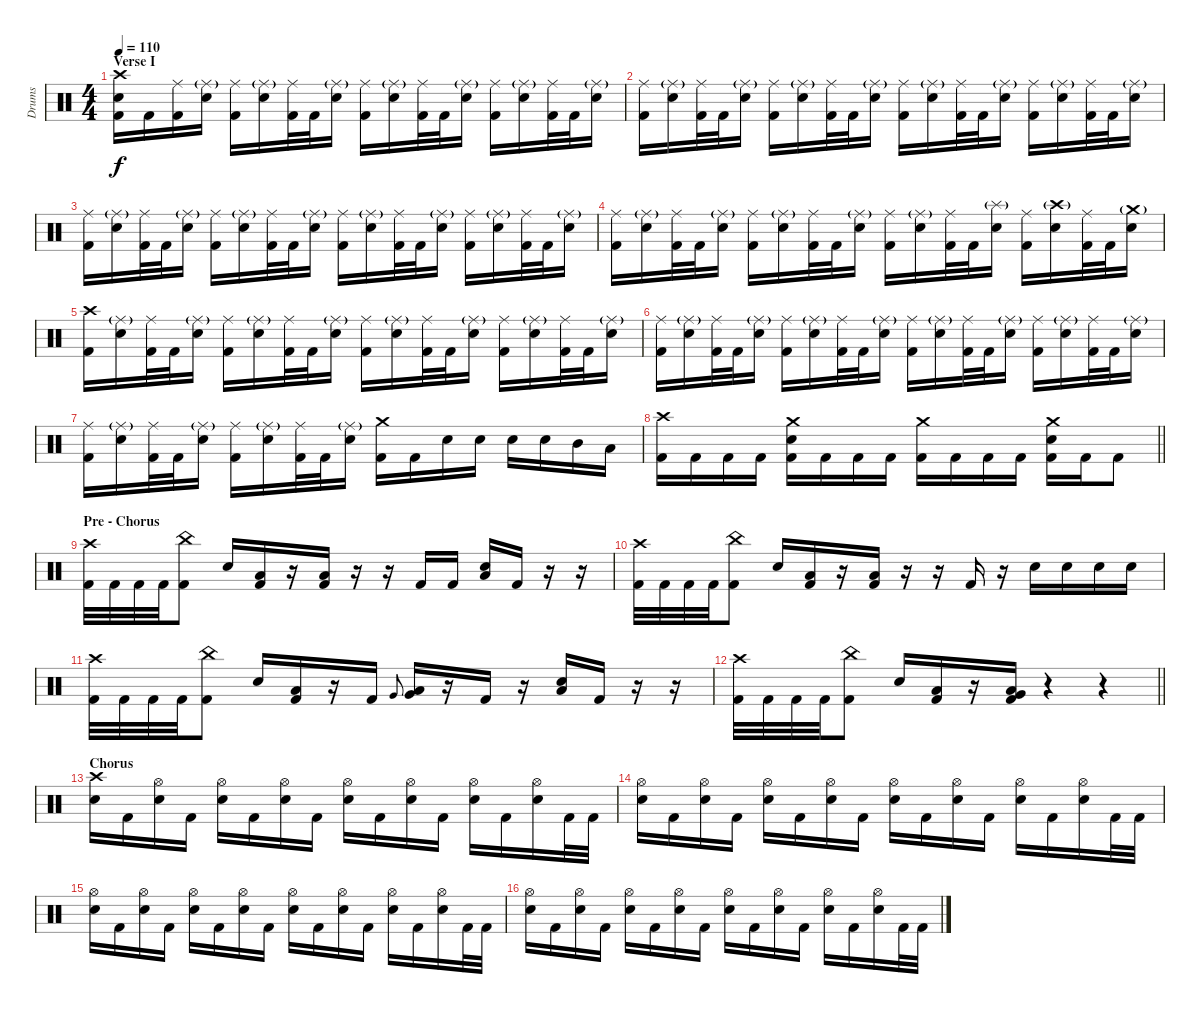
\track ("Drums" "Drums") {instrument percussion}
\staff {score}
\articulation defaults
\ts (4 4)
\section ("" "Verse I")
\tempo 110
\clef neutral
\ks c
("Crash high (hit)" "Electric Snare (hit)" "Kick (hit) 2").16{dy f} "Kick (hit) 2".16 ("Ride (middle)" "Kick (hit) 2").16 ("Ride (middle)"{g} "Electric Snare (hit)").16 ("Ride (middle)" "Kick (hit) 2").16 ("Ride (middle)"{g} "Electric Snare (hit)").16 ("Ride (middle)" "Kick (hit) 2").32 "Kick (hit) 2".32 ("Ride (middle)"{g} "Electric Snare (hit)").16 ("Ride (middle)" "Kick (hit) 2").16 ("Ride (middle)"{g} "Electric Snare (hit)").16 ("Ride (middle)" "Kick (hit) 2").32 "Kick (hit) 2".32 ("Ride (middle)"{g} "Electric Snare (hit)").16 ("Ride (middle)" "Kick (hit) 2").16 ("Ride (middle)"{g} "Electric Snare (hit)").16 ("Ride (middle)" "Kick (hit) 2").32 "Kick (hit) 2".32 ("Ride (middle)"{g} "Electric Snare (hit)").16 |
("Ride (middle)" "Kick (hit) 2").16 ("Ride (middle)"{g} "Electric Snare (hit)").16 ("Ride (middle)" "Kick (hit) 2").32 "Kick (hit) 2".32 ("Ride (middle)"{g} "Electric Snare (hit)").16 ("Ride (middle)" "Kick (hit) 2").16 ("Ride (middle)"{g} "Electric Snare (hit)").16 ("Ride (middle)" "Kick (hit) 2").32 "Kick (hit) 2".32 ("Ride (middle)"{g} "Electric Snare (hit)").16 ("Ride (middle)" "Kick (hit) 2").16 ("Ride (middle)"{g} "Electric Snare (hit)").16 ("Ride (middle)" "Kick (hit) 2").32 "Kick (hit) 2".32 ("Ride (middle)"{g} "Electric Snare (hit)").16 ("Ride (middle)" "Kick (hit) 2").16 ("Ride (middle)"{g} "Electric Snare (hit)").16 ("Ride (middle)" "Kick (hit) 2").32 "Kick (hit) 2".32 ("Ride (middle)"{g} "Electric Snare (hit)").16 |
("Ride (middle)" "Kick (hit) 2").16 ("Ride (middle)"{g} "Electric Snare (hit)").16 ("Ride (middle)" "Kick (hit) 2").32 "Kick (hit) 2".32 ("Ride (middle)"{g} "Electric Snare (hit)").16 ("Ride (middle)" "Kick (hit) 2").16 ("Ride (middle)"{g} "Electric Snare (hit)").16 ("Ride (middle)" "Kick (hit) 2").32 "Kick (hit) 2".32 ("Ride (middle)"{g} "Electric Snare (hit)").16 ("Ride (middle)" "Kick (hit) 2").16 ("Ride (middle)"{g} "Electric Snare (hit)").16 ("Ride (middle)" "Kick (hit) 2").32 "Kick (hit) 2".32 ("Ride (middle)"{g} "Electric Snare (hit)").16 ("Ride (middle)" "Kick (hit) 2").16 ("Ride (middle)"{g} "Electric Snare (hit)").16 ("Ride (middle)" "Kick (hit) 2").32 "Kick (hit) 2".32 ("Ride (middle)"{g} "Electric Snare (hit)").16 |
("Ride (middle)" "Kick (hit) 2").16 ("Ride (middle)"{g} "Electric Snare (hit)").16 ("Ride (middle)" "Kick (hit) 2").32 "Kick (hit) 2".32 ("Ride (middle)"{g} "Electric Snare (hit)").16 ("Ride (middle)" "Kick (hit) 2").16 ("Ride (middle)"{g} "Electric Snare (hit)").16 ("Ride (middle)" "Kick (hit) 2").32 "Kick (hit) 2".32 ("Ride (middle)"{g} "Electric Snare (hit)").16 ("Ride (middle)" "Kick (hit) 2").16 ("Ride (middle)"{g} "Electric Snare (hit)").16 ("Ride (middle)" "Kick (hit) 2").32 "Kick (hit) 2".32 ("Splash (hit)"{g} "Electric Snare (hit)").16 ("Ride (middle)" "Kick (hit) 2").16 ("Crash high (hit)"{g} "Electric Snare (hit)").16 ("Ride (middle)" "Kick (hit) 2").32 "Kick (hit) 2".32 ("Crash medium (hit)"{g} "Electric Snare (hit)").16 |
("Crash high (hit)" "Kick (hit) 2").16 ("Ride (middle)"{g} "Electric Snare (hit)").16 ("Ride (middle)" "Kick (hit) 2").32 "Kick (hit) 2".32 ("Ride (middle)"{g} "Electric Snare (hit)").16 ("Ride (middle)" "Kick (hit) 2").16 ("Ride (middle)"{g} "Electric Snare (hit)").16 ("Ride (middle)" "Kick (hit) 2").32 "Kick (hit) 2".32 ("Ride (middle)"{g} "Electric Snare (hit)").16 ("Ride (middle)" "Kick (hit) 2").16 ("Ride (middle)"{g} "Electric Snare (hit)").16 ("Ride (middle)" "Kick (hit) 2").32 "Kick (hit) 2".32 ("Ride (middle)"{g} "Electric Snare (hit)").16 ("Ride (middle)" "Kick (hit) 2").16 ("Ride (middle)"{g} "Electric Snare (hit)").16 ("Ride (middle)" "Kick (hit) 2").32 "Kick (hit) 2".32 ("Ride (middle)"{g} "Electric Snare (hit)").16 |
("Ride (middle)" "Kick (hit) 2").16 ("Ride (middle)"{g} "Electric Snare (hit)").16 ("Ride (middle)" "Kick (hit) 2").32 "Kick (hit) 2".32 ("Ride (middle)"{g} "Electric Snare (hit)").16 ("Ride (middle)" "Kick (hit) 2").16 ("Ride (middle)"{g} "Electric Snare (hit)").16 ("Ride (middle)" "Kick (hit) 2").32 "Kick (hit) 2".32 ("Ride (middle)"{g} "Electric Snare (hit)").16 ("Ride (middle)" "Kick (hit) 2").16 ("Ride (middle)"{g} "Electric Snare (hit)").16 ("Ride (middle)" "Kick (hit) 2").32 "Kick (hit) 2".32 ("Ride (middle)"{g} "Electric Snare (hit)").16 ("Ride (middle)" "Kick (hit) 2").16 ("Ride (middle)"{g} "Electric Snare (hit)").16 ("Ride (middle)" "Kick (hit) 2").32 "Kick (hit) 2".32 ("Ride (middle)"{g} "Electric Snare (hit)").16 |
("Ride (middle)" "Kick (hit) 2").16 ("Ride (middle)"{g} "Electric Snare (hit)").16 ("Ride (middle)" "Kick (hit) 2").32 "Kick (hit) 2".32 ("Ride (middle)"{g} "Electric Snare (hit)").16 ("Ride (middle)" "Kick (hit) 2").16 ("Ride (middle)"{g} "Electric Snare (hit)").16 ("Ride (middle)" "Kick (hit) 2").32 "Kick (hit) 2".32 ("Ride (middle)"{g} "Electric Snare (hit)").16 ("Crash medium (hit)" "Kick (hit) 2").16 "Kick (hit) 2".16 "Electric Snare (hit)".16 "Electric Snare (hit)".16 "Electric Snare (hit)".16 "Electric Snare (hit)".16 "Mid Tom (hit)".16 "Low Tom (hit)".16 |
\barLineRight lightlight
("Crash high (hit)" "Kick (hit) 2").16 "Kick (hit) 2".16 "Kick (hit) 2".16 "Kick (hit) 2".16 ("Crash medium (hit)" "Electric Snare (hit)" "Kick (hit) 2").16 "Kick (hit) 2".16 "Kick (hit) 2".16 "Kick (hit) 2".16 ("Crash medium (hit)" "Kick (hit) 2").16 "Kick (hit) 2".16 "Kick (hit) 2".16 "Kick (hit) 2".16 ("Crash medium (hit)" "Electric Snare (hit)" "Kick (hit) 2").16 "Kick (hit) 2".16 "Kick (hit) 2".8 |
\section ("" "Pre - Chorus")
("Crash high (hit)" "Kick (hit) 2").32 "Kick (hit) 2".32 "Kick (hit) 2".32 "Kick (hit) 2".32 ("China (hit)" "Kick (hit) 2").8 "Electric Snare (hit)".16 ("Low Floor Tom (hit)" "Kick (hit) 2").16 r.16 ("Low Floor Tom (hit)" "Kick (hit) 2").16 r.16 r.16 "Kick (hit) 2".16 "Kick (hit) 2".16 ("Low Floor Tom (hit)" "Electric Snare (hit)").16 "Kick (hit) 2".16 r.16 r.16 |
("Crash high (hit)" "Kick (hit) 2").32 "Kick (hit) 2".32 "Kick (hit) 2".32 "Kick (hit) 2".32 ("China (hit)" "Kick (hit) 2").8 "Electric Snare (hit)".16 ("Low Floor Tom (hit)" "Kick (hit) 2").16 r.16 ("Low Floor Tom (hit)" "Kick (hit) 2").16 r.16 r.16 "Kick (hit) 2".16 r.16 "Electric Snare (hit)".16 "Electric Snare (hit)".16 "Electric Snare (hit)".16 "Electric Snare (hit)".16 |
("Crash high (hit)" "Kick (hit) 2").32 "Kick (hit) 2".32 "Kick (hit) 2".32 "Kick (hit) 2".32 ("China (hit)" "Kick (hit) 2").8 "Electric Snare (hit)".16 ("Low Floor Tom (hit)" "Kick (hit) 2").16 r.16 "Kick (hit) 2".16 "Very Low Tom (hit)".8{gr onbeat} ("Very Low Tom (hit)" "Low Floor Tom (hit)").16 r.16 "Kick (hit) 2".16 r.16 ("Low Floor Tom (hit)" "Electric Snare (hit)").16 "Kick (hit) 2".16 r.16 r.16 |
\barLineRight lightlight
("Crash high (hit)" "Kick (hit) 2").32 "Kick (hit) 2".32 "Kick (hit) 2".32 "Kick (hit) 2".32 ("China (hit)" "Kick (hit) 2").8 "Electric Snare (hit)".16 ("Low Floor Tom (hit)" "Kick (hit) 2").16 r.16 ("Low Floor Tom (hit)" "Very Low Tom (hit)" "Kick (hit) 2").16 r.4 r.4 |
\section ("" "Chorus")
("Crash high (hit)" "Electric Snare (hit)").16 "Kick (hit) 2".16 ("Hi-Hat (open)" "Electric Snare (hit)").16 "Kick (hit) 2".16 ("Hi-Hat (open)" "Electric Snare (hit)").16 "Kick (hit) 2".16 ("Hi-Hat (open)" "Electric Snare (hit)").16 "Kick (hit) 2".16 ("Hi-Hat (open)" "Electric Snare (hit)").16 "Kick (hit) 2".16 ("Hi-Hat (open)" "Electric Snare (hit)").16 "Kick (hit) 2".16 ("Hi-Hat (open)" "Electric Snare (hit)").16 "Kick (hit) 2".16 ("Hi-Hat (open)" "Electric Snare (hit)").16 "Kick (hit) 2".32 "Kick (hit) 2".32 |
("Hi-Hat (open)" "Electric Snare (hit)").16 "Kick (hit) 2".16 ("Hi-Hat (open)" "Electric Snare (hit)").16 "Kick (hit) 2".16 ("Hi-Hat (open)" "Electric Snare (hit)").16 "Kick (hit) 2".16 ("Hi-Hat (open)" "Electric Snare (hit)").16 "Kick (hit) 2".16 ("Hi-Hat (open)" "Electric Snare (hit)").16 "Kick (hit) 2".16 ("Hi-Hat (open)" "Electric Snare (hit)").16 "Kick (hit) 2".16 ("Hi-Hat (open)" "Electric Snare (hit)").16 "Kick (hit) 2".16 ("Hi-Hat (open)" "Electric Snare (hit)").16 "Kick (hit) 2".32 "Kick (hit) 2".32 |
("Hi-Hat (open)" "Electric Snare (hit)").16 "Kick (hit) 2".16 ("Hi-Hat (open)" "Electric Snare (hit)").16 "Kick (hit) 2".16 ("Hi-Hat (open)" "Electric Snare (hit)").16 "Kick (hit) 2".16 ("Hi-Hat (open)" "Electric Snare (hit)").16 "Kick (hit) 2".16 ("Hi-Hat (open)" "Electric Snare (hit)").16 "Kick (hit) 2".16 ("Hi-Hat (open)" "Electric Snare (hit)").16 "Kick (hit) 2".16 ("Hi-Hat (open)" "Electric Snare (hit)").16 "Kick (hit) 2".16 ("Hi-Hat (open)" "Electric Snare (hit)").16 "Kick (hit) 2".32 "Kick (hit) 2".32 |
("Hi-Hat (open)" "Electric Snare (hit)").16 "Kick (hit) 2".16 ("Hi-Hat (open)" "Electric Snare (hit)").16 "Kick (hit) 2".16 ("Hi-Hat (open)" "Electric Snare (hit)").16 "Kick (hit) 2".16 ("Hi-Hat (open)" "Electric Snare (hit)").16 "Kick (hit) 2".16 ("Hi-Hat (open)" "Electric Snare (hit)").16 "Kick (hit) 2".16 ("Hi-Hat (open)" "Electric Snare (hit)").16 "Kick (hit) 2".16 ("Hi-Hat (open)" "Electric Snare (hit)").16 "Kick (hit) 2".16 ("Hi-Hat (open)" "Electric Snare (hit)").16 "Kick (hit) 2".32 "Kick (hit) 2".32
